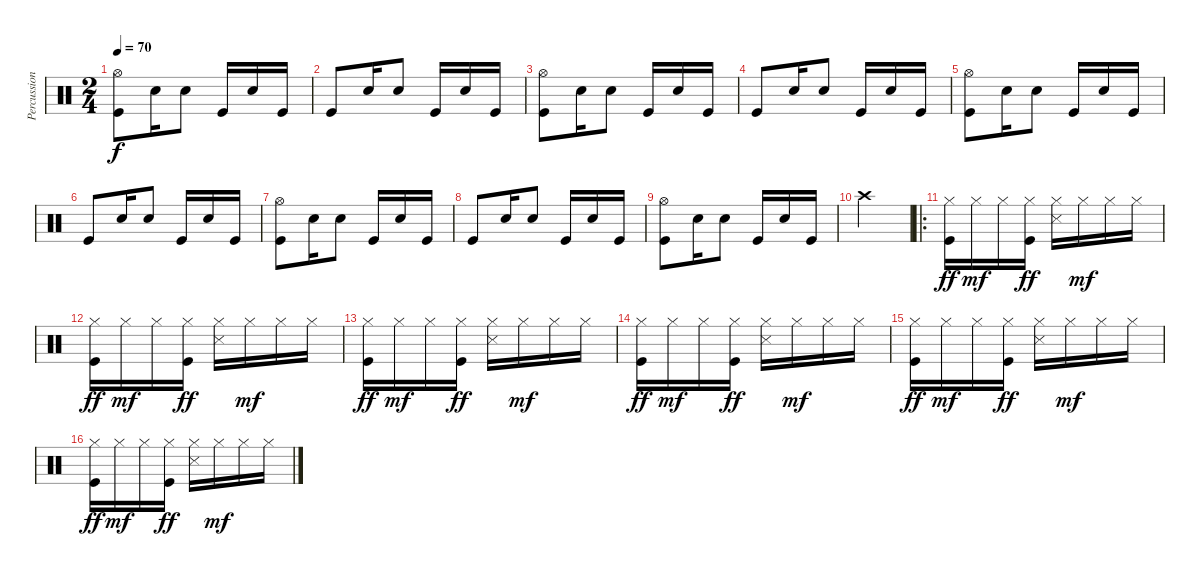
\track ("Percussions" "Percussion") {instrument percussion}
\staff {score}
\articulation defaults
\ts (2 4)
\tempo 70
\clef neutral
\ks c
("Hi-Hat (open)" "Kick (hit)").8{dy f} "Electric Snare (hit)".16 "Electric Snare (hit)".8 "Kick (hit)".16 "Electric Snare (hit)".16 "Kick (hit)".16 |
"Kick (hit)".8 "Electric Snare (hit)".16 "Electric Snare (hit)".8 "Kick (hit)".16 "Electric Snare (hit)".16 "Kick (hit)".16 |
("Hi-Hat (open)" "Kick (hit)").8 "Electric Snare (hit)".16 "Electric Snare (hit)".8 "Kick (hit)".16 "Electric Snare (hit)".16 "Kick (hit)".16 |
"Kick (hit)".8 "Electric Snare (hit)".16 "Electric Snare (hit)".8 "Kick (hit)".16 "Electric Snare (hit)".16 "Kick (hit)".16 |
("Hi-Hat (open)" "Kick (hit)").8 "Electric Snare (hit)".16 "Electric Snare (hit)".8 "Kick (hit)".16 "Electric Snare (hit)".16 "Kick (hit)".16 |
"Kick (hit)".8 "Electric Snare (hit)".16 "Electric Snare (hit)".8 "Kick (hit)".16 "Electric Snare (hit)".16 "Kick (hit)".16 |
("Hi-Hat (open)" "Kick (hit)").8 "Electric Snare (hit)".16 "Electric Snare (hit)".8 "Kick (hit)".16 "Electric Snare (hit)".16 "Kick (hit)".16 |
"Kick (hit)".8 "Electric Snare (hit)".16 "Electric Snare (hit)".8 "Kick (hit)".16 "Electric Snare (hit)".16 "Kick (hit)".16 |
("Hi-Hat (open)" "Kick (hit)").8 "Electric Snare (hit)".16 "Electric Snare (hit)".8 "Kick (hit)".16 "Electric Snare (hit)".16 "Kick (hit)".16 |
"Crash high (hit)".2 |
\ro
("Hi-Hat (closed)" "Kick (hit)").16{dy ff} "Hi-Hat (closed)".16{dy mf} "Hi-Hat (closed)".16 ("Hi-Hat (closed)" "Kick (hit)").16{dy ff} ("Hi-Hat (closed)" "Snare (side stick) 3").16 "Hi-Hat (closed)".16{dy mf} "Hi-Hat (closed)".16 "Hi-Hat (closed)".16 |
("Hi-Hat (closed)" "Kick (hit)").16{dy ff} "Hi-Hat (closed)".16{dy mf} "Hi-Hat (closed)".16 ("Hi-Hat (closed)" "Kick (hit)").16{dy ff} ("Hi-Hat (closed)" "Snare (side stick) 3").16 "Hi-Hat (closed)".16{dy mf} "Hi-Hat (closed)".16 "Hi-Hat (closed)".16 |
("Hi-Hat (closed)" "Kick (hit)").16{dy ff} "Hi-Hat (closed)".16{dy mf} "Hi-Hat (closed)".16 ("Hi-Hat (closed)" "Kick (hit)").16{dy ff} ("Hi-Hat (closed)" "Snare (side stick) 3").16 "Hi-Hat (closed)".16{dy mf} "Hi-Hat (closed)".16 "Hi-Hat (closed)".16 |
("Hi-Hat (closed)" "Kick (hit)").16{dy ff} "Hi-Hat (closed)".16{dy mf} "Hi-Hat (closed)".16 ("Hi-Hat (closed)" "Kick (hit)").16{dy ff} ("Hi-Hat (closed)" "Snare (side stick) 3").16 "Hi-Hat (closed)".16{dy mf} "Hi-Hat (closed)".16 "Hi-Hat (closed)".16 |
("Hi-Hat (closed)" "Kick (hit)").16{dy ff} "Hi-Hat (closed)".16{dy mf} "Hi-Hat (closed)".16 ("Hi-Hat (closed)" "Kick (hit)").16{dy ff} ("Hi-Hat (closed)" "Snare (side stick) 3").16 "Hi-Hat (closed)".16{dy mf} "Hi-Hat (closed)".16 "Hi-Hat (closed)".16 |
("Hi-Hat (closed)" "Kick (hit)").16{dy ff} "Hi-Hat (closed)".16{dy mf} "Hi-Hat (closed)".16 ("Hi-Hat (closed)" "Kick (hit)").16{dy ff} ("Hi-Hat (closed)" "Snare (side stick) 3").16 "Hi-Hat (closed)".16{dy mf} "Hi-Hat (closed)".16 "Hi-Hat (closed)".16
